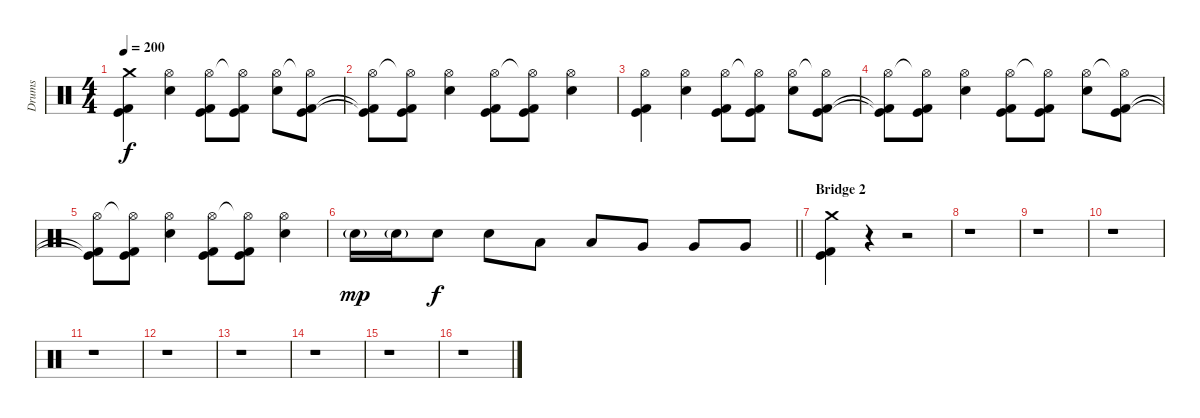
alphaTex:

\track ("Drums" "Drums") {instrument percussion}
\staff {score}
\articulation defaults
\ts (4 4)
\tempo 200
\clef neutral
\ks c
("Crash medium (hit)" "Kick (hit)" "Kick (hit) 2").4{dy f} ("Hi-Hat (open)" "Electric Snare (hit)").4 ("Hi-Hat (open)" "Kick (hit)" "Kick (hit) 2").8 ("Hi-Hat (open)"{t} "Kick (hit)" "Kick (hit) 2").8 ("Hi-Hat (open)" "Electric Snare (hit)").8 ("Hi-Hat (open)"{t} "Kick (hit)" "Kick (hit) 2").8 |
("Hi-Hat (open)" "Kick (hit)"{t} "Kick (hit) 2"{t}).8 ("Hi-Hat (open)"{t} "Kick (hit)" "Kick (hit) 2").8 ("Hi-Hat (open)" "Electric Snare (hit)").4 ("Hi-Hat (open)" "Kick (hit)" "Kick (hit) 2").8 ("Hi-Hat (open)"{t} "Kick (hit)" "Kick (hit) 2").8 ("Hi-Hat (open)" "Electric Snare (hit)").4 |
("Hi-Hat (open)" "Kick (hit)" "Kick (hit) 2").4 ("Hi-Hat (open)" "Electric Snare (hit)").4 ("Hi-Hat (open)" "Kick (hit)" "Kick (hit) 2").8 ("Hi-Hat (open)"{t} "Kick (hit)" "Kick (hit) 2").8 ("Hi-Hat (open)" "Electric Snare (hit)").8 ("Hi-Hat (open)"{t} "Kick (hit)" "Kick (hit) 2").8 |
("Hi-Hat (open)" "Kick (hit)"{t} "Kick (hit) 2"{t}).8 ("Hi-Hat (open)"{t} "Kick (hit)" "Kick (hit) 2").8 ("Hi-Hat (open)" "Electric Snare (hit)").4 ("Hi-Hat (open)" "Kick (hit)" "Kick (hit) 2").8 ("Hi-Hat (open)"{t} "Kick (hit)" "Kick (hit) 2").8 ("Hi-Hat (open)" "Electric Snare (hit)").8 ("Hi-Hat (open)"{t} "Kick (hit)" "Kick (hit) 2").8 |
("Hi-Hat (open)" "Kick (hit)"{t} "Kick (hit) 2"{t}).8 ("Hi-Hat (open)"{t} "Kick (hit)" "Kick (hit) 2").8 ("Hi-Hat (open)" "Electric Snare (hit)").4 ("Hi-Hat (open)" "Kick (hit)" "Kick (hit) 2").8 ("Hi-Hat (open)"{t} "Kick (hit)" "Kick (hit) 2").8 ("Hi-Hat (open)" "Electric Snare (hit)").4 |
\barLineRight lightlight "Electric Snare (hit)"{g}.16{dy mp} "Electric Snare (hit)"{g}.16 "Electric Snare (hit)".8{dy f} "Electric Snare (hit)".8 "Low Tom (hit)".8 "Low Tom (hit)".8 "Very Low Tom (hit)".8 "Very Low Tom (hit)".8 "Very Low Tom (hit)".8
|
\section ("" "Bridge 2")
("Crash medium (hit)" "Kick (hit)" "Kick (hit) 2").4 r.4 r.2 |
r.1 |
r.1 |
r.1 |
r.1 |
r.1 |
r.1 |
r.1 |
r.1 |
r.1
